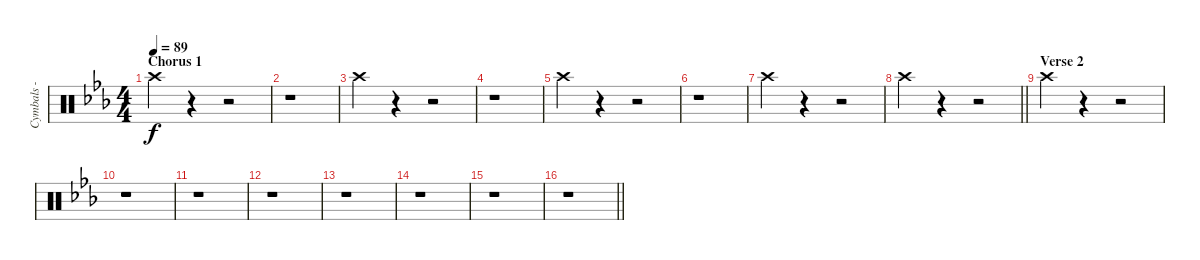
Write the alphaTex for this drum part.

\track ("Cymbals - crash" "Cymbals - ") {instrument percussion}
\staff {score}
\articulation defaults
\ts (4 4)
\section ("" "Chorus 1")
\tempo 89
\clef neutral
\ks eb "Crash high (hit)".4{dy f}
r.4 r.2 |
r.1 |
"Crash high (hit)".4 r.4 r.2 |
r.1 |
"Crash high (hit)".4 r.4 r.2 |
r.1 |
"Crash high (hit)".4 r.4 r.2 |
\barLineRight lightlight "Crash high (hit)".4
r.4 r.2 |
\section ("" "Verse 2")
"Crash high (hit)".4 r.4 r.2 |
r.1 |
r.1 |
r.1 |
r.1 |
r.1 |
r.1 |
\barLineRight lightlight
r.1
